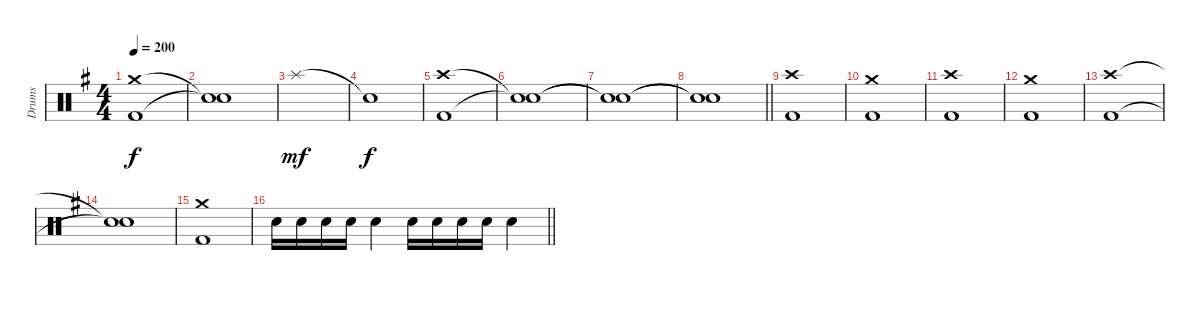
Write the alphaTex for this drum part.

\track ("Drums" "Drums") {instrument percussion}
\staff {score}
\articulation defaults
\ts (4 4)
\section ("" "")
\tempo 200
\clef neutral
\ks g
("Crash medium (hit)" "Kick (hit) 2").1{dy f} |
("Snare (hit)"{t} "Snare (hit)"{t}).1 |
"Splash (hit)".1{dy mf} |
"Snare (hit)"{t}.1{dy f} |
("Crash high (hit)" "Kick (hit) 2").1 |
("Snare (hit)"{t} "Snare (hit)"{t}).1 |
("Snare (hit)"{t} "Snare (hit)"{t}).1 |
\barLineRight lightlight
("Snare (hit)"{t} "Snare (hit)"{t}).1 |
\section ("" "")
("Crash high (hit)" "Kick (hit) 2").1 |
("Crash medium (hit)" "Kick (hit) 2").1 |
("Crash high (hit)" "Kick (hit) 2").1 |
("Crash medium (hit)" "Kick (hit) 2").1 |
("Crash high (hit)" "Kick (hit) 2").1 |
("Snare (hit)"{t} "Snare (hit)"{t}).1 |
("Crash medium (hit)" "Kick (hit) 2").1 |
\barLineRight lightlight "Snare (hit) 2".16 "Snare (hit) 2".16 "Snare (hit) 2".16 "Snare (hit) 2".16 "Snare (hit) 2".4 "Snare (hit) 2".16 "Snare (hit) 2".16 "Snare (hit) 2".16 "Snare (hit) 2".16 "Snare (hit) 2".4
